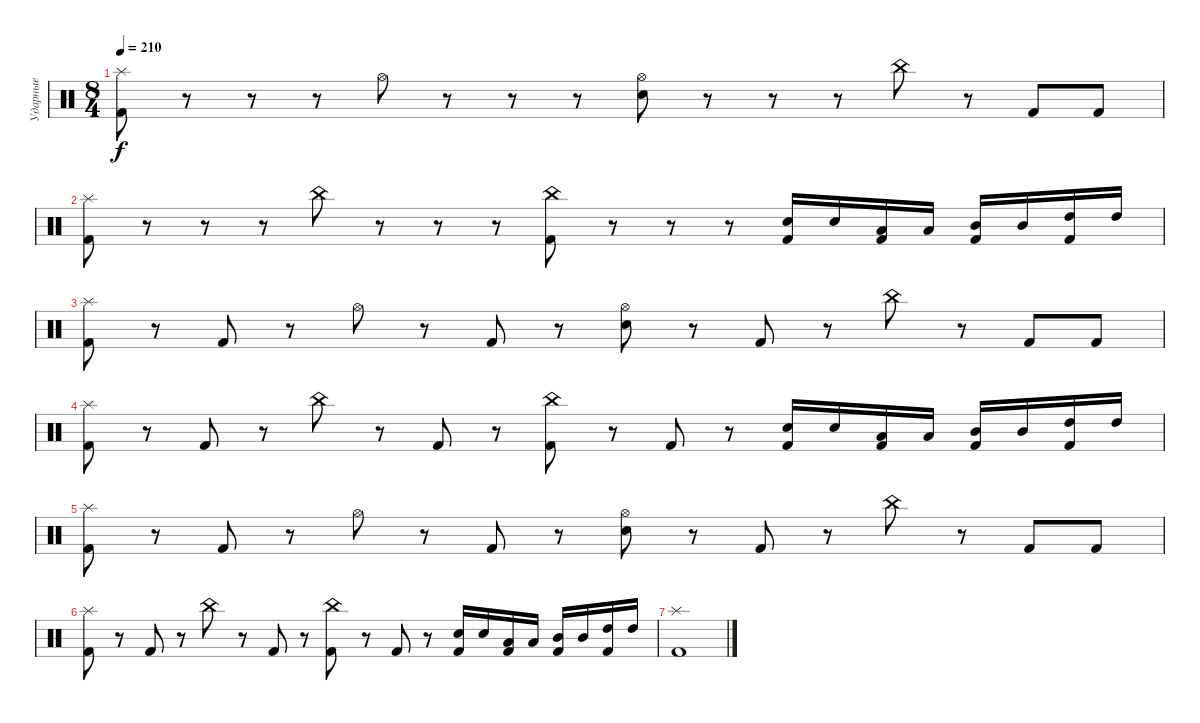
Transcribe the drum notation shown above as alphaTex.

\track ("Ударные" "Ударные") {mute instrument percussion}
\staff {score}
\articulation defaults
\ts (8 4)
\tempo 210
\clef neutral
\ks c
("Kick (hit) 2" "Splash (hit)").8{dy f} r.8 r.8 r.8 "Hi-Hat (open)".8 r.8 r.8 r.8 ("Electric Snare (hit)" "Hi-Hat (open)").8 r.8 r.8 r.8 "China (hit)".8 r.8 "Kick (hit) 2".8 "Kick (hit) 2".8 |
("Kick (hit) 2" "Splash (hit)").8 r.8 r.8 r.8 "China (hit)".8 r.8 r.8 r.8 ("Kick (hit) 2" "China (hit)").8 r.8 r.8 r.8 ("Kick (hit) 2" "Electric Snare (hit)").16 "Electric Snare (hit)".16 ("Kick (hit) 2" "Low Tom (hit)").16 "Low Tom (hit)".16 ("Kick (hit) 2" "Mid Tom (hit)").16 "Mid Tom (hit)".16 ("Kick (hit) 2" "High Tom (hit)").16 "High Tom (hit)".16 |
("Kick (hit) 2" "Splash (hit)").8 r.8 "Kick (hit) 2".8 r.8 "Hi-Hat (open)".8 r.8 "Kick (hit) 2".8 r.8 ("Electric Snare (hit)" "Hi-Hat (open)").8 r.8 "Kick (hit) 2".8 r.8 "China (hit)".8 r.8 "Kick (hit) 2".8 "Kick (hit) 2".8 |
("Kick (hit) 2" "Splash (hit)").8 r.8 "Kick (hit) 2".8 r.8 "China (hit)".8 r.8 "Kick (hit) 2".8 r.8 ("Kick (hit) 2" "China (hit)").8 r.8 "Kick (hit) 2".8 r.8 ("Kick (hit) 2" "Electric Snare (hit)").16 "Electric Snare (hit)".16 ("Kick (hit) 2" "Low Tom (hit)").16 "Low Tom (hit)".16 ("Kick (hit) 2" "Mid Tom (hit)").16 "Mid Tom (hit)".16 ("Kick (hit) 2" "High Tom (hit)").16 "High Tom (hit)".16 |
("Kick (hit) 2" "Splash (hit)").8 r.8 "Kick (hit) 2".8 r.8 "Hi-Hat (open)".8 r.8 "Kick (hit) 2".8 r.8 ("Electric Snare (hit)" "Hi-Hat (open)").8 r.8 "Kick (hit) 2".8 r.8 "China (hit)".8 r.8 "Kick (hit) 2".8 "Kick (hit) 2".8 |
("Kick (hit) 2" "Splash (hit)").8 r.8 "Kick (hit) 2".8 r.8 "China (hit)".8 r.8 "Kick (hit) 2".8 r.8 ("Kick (hit) 2" "China (hit)").8 r.8 "Kick (hit) 2".8 r.8 ("Kick (hit) 2" "Electric Snare (hit)").16 "Electric Snare (hit)".16 ("Kick (hit) 2" "Low Tom (hit)").16 "Low Tom (hit)".16 ("Kick (hit) 2" "Mid Tom (hit)").16 "Mid Tom (hit)".16 ("Kick (hit) 2" "High Tom (hit)").16 "High Tom (hit)".16 |
("Kick (hit) 2" "Splash (hit)").1
